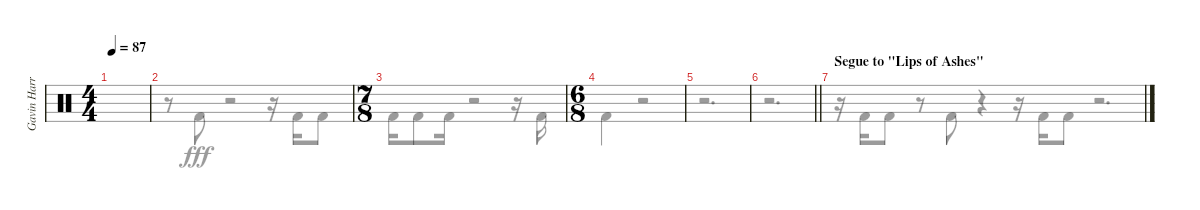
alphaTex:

\track ("Gavin Harrison Bass Pedal" "Gavin Harr") {instrument percussion}
\staff {score}
\articulation defaults
\voice
\ts (4 4)
\tempo 87
\clef neutral
\ks aminor
|
|
\ts (7 8)
|
\ts (6 8)
|
|
\barLineRight lightlight
|
\section ("" "Segue to \"Lips of Ashes\"")
\voice
\clef neutral
\ks aminor
r.16{dy fff} "Kick (hit) 2".16 "Kick (hit) 2".8 r.8 "Kick (hit) 2".8 r.4 r.16 "Kick (hit) 2".16 "Kick (hit) 2".8 |
r.8 "Kick (hit) 2".8 r.2 r.16 "Kick (hit) 2".16 "Kick (hit) 2".8 |
"Kick (hit) 2".16 "Kick (hit) 2".8 "Kick (hit) 2".16 r.2 r.16 "Kick (hit) 2".16 |
"Kick (hit) 2".4 r.2 |
r.2{d} |
\barLineRight lightlight
r.2{d} |
r.2{d}
